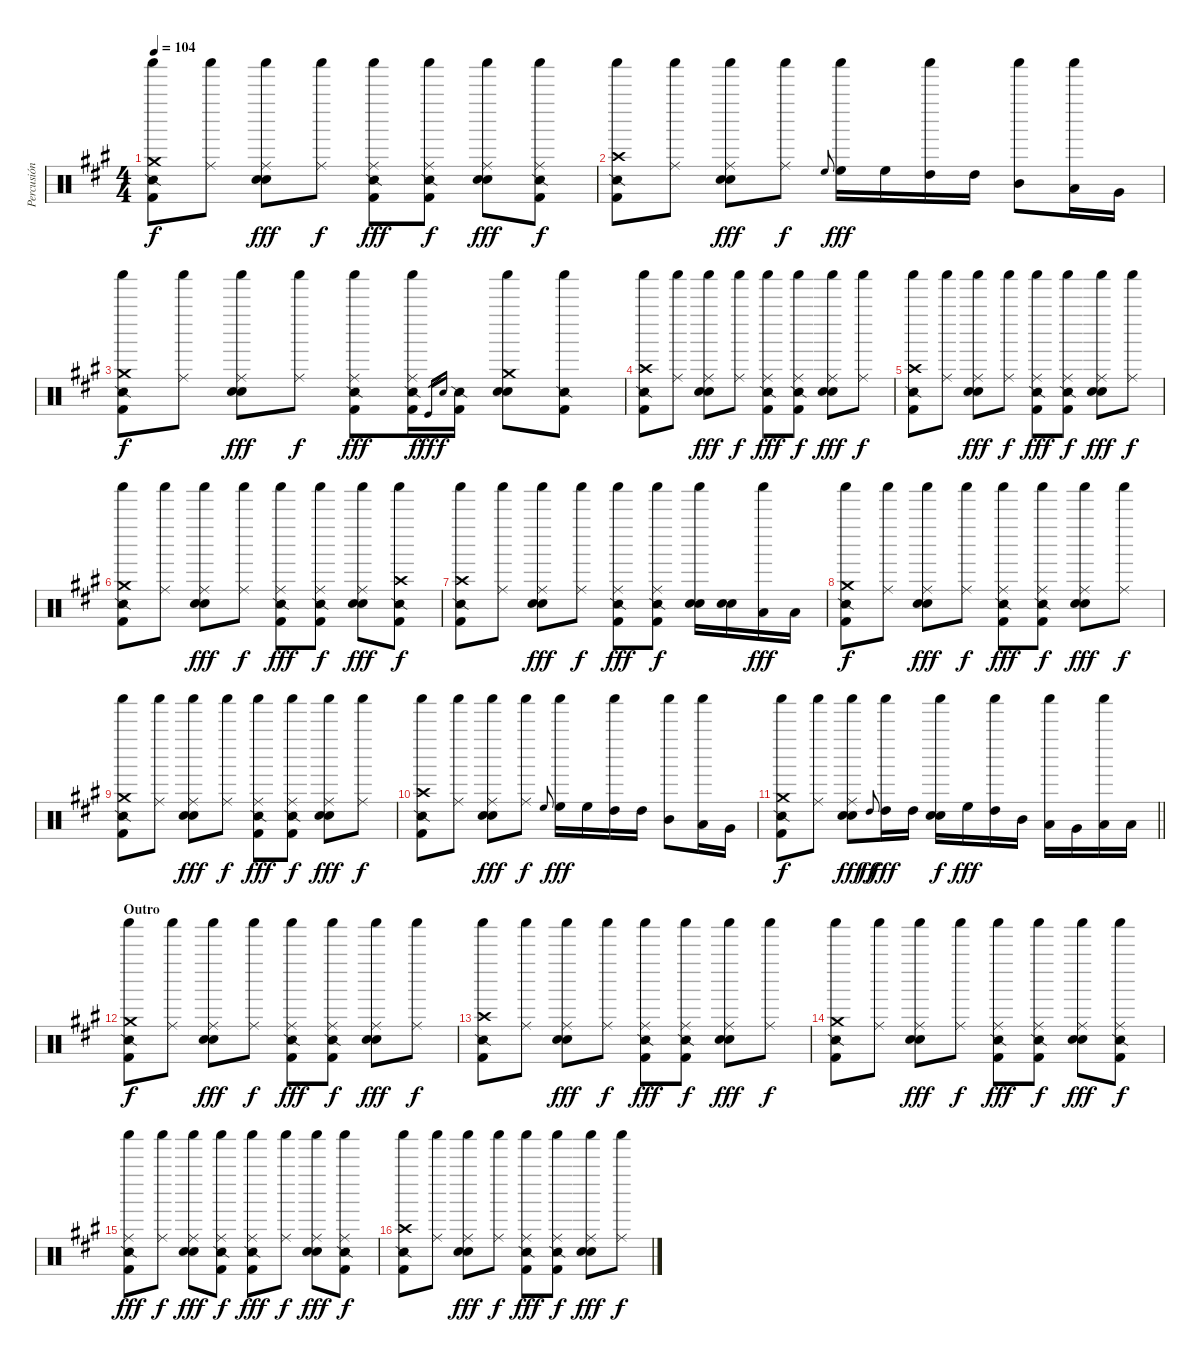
\track ("Percusión" "Percusión") {instrument percussion}
\staff {score}
\articulation defaults
\ts (4 4)
\tempo 104
\clef neutral
\ks a
("Crash medium (hit)" "Kick (hit) 2" "Snare (side stick) 2" "Shaker (hit)").8{dy f} ("Ride (middle)" "Shaker (hit)").8 ("Ride (middle)" "Snare (hit) 2" "Electric Snare (hit)" "Shaker (hit)").8{dy fff} ("Ride (middle)" "Shaker (hit)").8{dy f} ("Ride (middle)" "Kick (hit) 2" "Snare (side stick) 2" "Shaker (hit)").8{dy fff} ("Ride (middle)" "Kick (hit) 2" "Snare (side stick) 2" "Shaker (hit)").8{dy f} ("Ride (middle)" "Snare (hit) 2" "Electric Snare (hit)" "Shaker (hit)").8{dy fff} ("Ride (middle)" "Kick (hit) 2" "Snare (side stick) 2" "Shaker (hit)").8{dy f} |
("Crash high (hit)" "Kick (hit) 2" "Snare (side stick) 2" "Shaker (hit)").8 ("Ride (middle)" "Shaker (hit)").8 ("Ride (middle)" "Snare (hit) 2" "Electric Snare (hit)" "Shaker (hit)").8{dy fff} ("Ride (middle)" "Shaker (hit)").8{dy f} "High Floor Tom (hit)".8{gr onbeat} ("High Floor Tom (hit)" "Shaker (hit)").16{dy fff} "High Floor Tom (hit)".16 ("High Tom (hit)" "Shaker (hit)").16 "High Tom (hit)".16 ("Mid Tom (hit)" "Shaker (hit)").8 ("Low Tom (hit)" "Shaker (hit)").16 "Very Low Tom (hit)".16 |
("Crash medium (hit)" "Kick (hit) 2" "Snare (side stick) 2" "Shaker (hit)").8{dy f} ("Ride (middle)" "Shaker (hit)").8 ("Ride (middle)" "Snare (hit) 2" "Electric Snare (hit)" "Shaker (hit)").8{dy fff} ("Ride (middle)" "Shaker (hit)").8{dy f} ("Ride (middle)" "Kick (hit) 2" "Snare (side stick) 2" "Shaker (hit)").8{dy fff} ("Ride (middle)" "Kick (hit) 2" "Snare (side stick) 2" "Shaker (hit)").16{dy f} "Kick (hit)".16{gr dy ff} "Snare (hit)".16{gr dy f} ("Kick (hit) 2" "Snare (side stick) 2").16 ("Crash medium (hit)" "Snare (hit) 2" "Electric Snare (hit)" "Shaker (hit)").8 ("Kick (hit) 2" "Snare (side stick) 2" "Shaker (hit)").8 |
("Crash high (hit)" "Kick (hit) 2" "Snare (side stick) 2" "Shaker (hit)").8 ("Ride (middle)" "Shaker (hit)").8 ("Ride (middle)" "Snare (hit) 2" "Electric Snare (hit)" "Shaker (hit)").8{dy fff} ("Ride (middle)" "Shaker (hit)").8{dy f} ("Ride (middle)" "Kick (hit) 2" "Snare (side stick) 2" "Shaker (hit)").8{dy fff} ("Ride (middle)" "Kick (hit) 2" "Snare (side stick) 2" "Shaker (hit)").8{dy f} ("Ride (middle)" "Snare (hit) 2" "Electric Snare (hit)" "Shaker (hit)").8{dy fff} ("Ride (middle)" "Shaker (hit)").8{dy f} |
("Crash high (hit)" "Kick (hit) 2" "Snare (side stick) 2" "Shaker (hit)").8 ("Ride (middle)" "Shaker (hit)").8 ("Ride (middle)" "Snare (hit) 2" "Electric Snare (hit)" "Shaker (hit)").8{dy fff} ("Ride (middle)" "Shaker (hit)").8{dy f} ("Ride (middle)" "Kick (hit) 2" "Snare (side stick) 2" "Shaker (hit)").8{dy fff} ("Ride (middle)" "Kick (hit) 2" "Snare (side stick) 2" "Shaker (hit)").8{dy f} ("Ride (middle)" "Snare (hit) 2" "Electric Snare (hit)" "Shaker (hit)").8{dy fff} ("Ride (middle)" "Shaker (hit)").8{dy f} |
("Crash medium (hit)" "Kick (hit) 2" "Snare (side stick) 2" "Shaker (hit)").8 ("Ride (middle)" "Shaker (hit)").8 ("Ride (middle)" "Snare (hit) 2" "Electric Snare (hit)" "Shaker (hit)").8{dy fff} ("Ride (middle)" "Shaker (hit)").8{dy f} ("Ride (middle)" "Kick (hit) 2" "Snare (side stick) 2" "Shaker (hit)").8{dy fff} ("Ride (middle)" "Kick (hit) 2" "Snare (side stick) 2" "Shaker (hit)").8{dy f} ("Ride (middle)" "Snare (hit) 2" "Electric Snare (hit)" "Shaker (hit)").8{dy fff} ("Crash high (hit)" "Kick (hit) 2" "Snare (side stick) 2" "Shaker (hit)").8{dy f} |
("Crash high (hit)" "Kick (hit) 2" "Snare (side stick) 2" "Shaker (hit)").8 ("Ride (middle)" "Shaker (hit)").8 ("Ride (middle)" "Snare (hit) 2" "Electric Snare (hit)" "Shaker (hit)").8{dy fff} ("Ride (middle)" "Shaker (hit)").8{dy f} ("Ride (middle)" "Kick (hit) 2" "Snare (side stick) 2" "Shaker (hit)").8{dy fff} ("Ride (middle)" "Kick (hit) 2" "Snare (side stick) 2" "Shaker (hit)").8{dy f} ("Snare (hit) 2" "Electric Snare (hit)" "Shaker (hit)").16 ("Snare (hit) 2" "Electric Snare (hit)").16 ("Low Tom (hit)" "Shaker (hit)").16{dy fff} "Low Tom (hit)".16 |
("Crash medium (hit)" "Kick (hit) 2" "Snare (side stick) 2" "Shaker (hit)").8{dy f} ("Ride (middle)" "Shaker (hit)").8 ("Ride (middle)" "Snare (hit) 2" "Electric Snare (hit)" "Shaker (hit)").8{dy fff} ("Ride (middle)" "Shaker (hit)").8{dy f} ("Ride (middle)" "Kick (hit) 2" "Snare (side stick) 2" "Shaker (hit)").8{dy fff} ("Ride (middle)" "Kick (hit) 2" "Snare (side stick) 2" "Shaker (hit)").8{dy f} ("Ride (middle)" "Snare (hit) 2" "Electric Snare (hit)" "Shaker (hit)").8{dy fff} ("Ride (middle)" "Shaker (hit)").8{dy f} |
("Crash medium (hit)" "Kick (hit) 2" "Snare (side stick) 2" "Shaker (hit)").8 ("Ride (middle)" "Shaker (hit)").8 ("Ride (middle)" "Snare (hit) 2" "Electric Snare (hit)" "Shaker (hit)").8{dy fff} ("Ride (middle)" "Shaker (hit)").8{dy f} ("Ride (middle)" "Kick (hit) 2" "Snare (side stick) 2" "Shaker (hit)").8{dy fff} ("Ride (middle)" "Kick (hit) 2" "Snare (side stick) 2" "Shaker (hit)").8{dy f} ("Ride (middle)" "Snare (hit) 2" "Electric Snare (hit)" "Shaker (hit)").8{dy fff} ("Ride (middle)" "Shaker (hit)").8{dy f} |
("Crash high (hit)" "Kick (hit) 2" "Snare (side stick) 2" "Shaker (hit)").8 ("Ride (middle)" "Shaker (hit)").8 ("Ride (middle)" "Snare (hit) 2" "Electric Snare (hit)" "Shaker (hit)").8{dy fff} ("Ride (middle)" "Shaker (hit)").8{dy f} "High Floor Tom (hit)".8{gr onbeat} ("High Floor Tom (hit)" "Shaker (hit)").16{dy fff} "High Floor Tom (hit)".16 ("High Tom (hit)" "Shaker (hit)").16 "High Tom (hit)".16 ("Mid Tom (hit)" "Shaker (hit)").8 ("Low Tom (hit)" "Shaker (hit)").16 "Very Low Tom (hit)".16 |
\barLineRight lightlight
("Crash medium (hit)" "Kick (hit) 2" "Snare (side stick) 2" "Shaker (hit)").8{dy f} ("Ride (middle)" "Shaker (hit)").8 ("Ride (middle)" "Snare (hit) 2" "Electric Snare (hit)" "Shaker (hit)").8{dy fff} "High Tom (hit)".8{gr onbeat dy ff} ("High Tom (hit)" "Shaker (hit)").16{dy fff} "High Tom (hit)".16 ("Snare (hit) 2" "Electric Snare (hit)" "Shaker (hit)").16{dy f} "High Floor Tom (hit)".16{dy fff} ("High Tom (hit)" "Shaker (hit)").16 "Mid Tom (hit)".16 ("Low Tom (hit)" "Shaker (hit)").16 "Very Low Tom (hit)".16 ("Low Floor Tom (hit)" "Shaker (hit)").16 "Low Floor Tom (hit)".16 |
\section ("" "Outro")
("Crash medium (hit)" "Kick (hit) 2" "Snare (side stick) 2" "Shaker (hit)").8{dy f} ("Ride (middle)" "Shaker (hit)").8 ("Ride (middle)" "Snare (hit) 2" "Electric Snare (hit)" "Shaker (hit)").8{dy fff} ("Ride (middle)" "Shaker (hit)").8{dy f} ("Ride (middle)" "Kick (hit) 2" "Snare (side stick) 2" "Shaker (hit)").8{dy fff} ("Ride (middle)" "Kick (hit) 2" "Snare (side stick) 2" "Shaker (hit)").8{dy f} ("Ride (middle)" "Snare (hit) 2" "Electric Snare (hit)" "Shaker (hit)").8{dy fff} ("Ride (middle)" "Shaker (hit)").8{dy f} |
("Crash high (hit)" "Kick (hit) 2" "Snare (side stick) 2" "Shaker (hit)").8 ("Ride (middle)" "Shaker (hit)").8 ("Ride (middle)" "Snare (hit) 2" "Electric Snare (hit)" "Shaker (hit)").8{dy fff} ("Ride (middle)" "Shaker (hit)").8{dy f} ("Ride (middle)" "Kick (hit) 2" "Snare (side stick) 2" "Shaker (hit)").8{dy fff} ("Ride (middle)" "Kick (hit) 2" "Snare (side stick) 2" "Shaker (hit)").8{dy f} ("Ride (middle)" "Snare (hit) 2" "Electric Snare (hit)" "Shaker (hit)").8{dy fff} ("Ride (middle)" "Shaker (hit)").8{dy f} |
("Crash medium (hit)" "Kick (hit) 2" "Snare (side stick) 2" "Shaker (hit)").8 ("Ride (middle)" "Shaker (hit)").8 ("Ride (middle)" "Snare (hit) 2" "Electric Snare (hit)" "Shaker (hit)").8{dy fff} ("Ride (middle)" "Shaker (hit)").8{dy f} ("Ride (middle)" "Kick (hit) 2" "Snare (side stick) 2" "Shaker (hit)").8{dy fff} ("Ride (middle)" "Kick (hit) 2" "Snare (side stick) 2" "Shaker (hit)").8{dy f} ("Ride (middle)" "Snare (hit) 2" "Electric Snare (hit)" "Shaker (hit)").8{dy fff} ("Ride (middle)" "Kick (hit) 2" "Snare (side stick) 2" "Shaker (hit)").8{dy f} |
("Ride (middle)" "Kick (hit) 2" "Snare (side stick) 2" "Shaker (hit)").8{dy fff} ("Ride (middle)" "Shaker (hit)").8{dy f} ("Ride (middle)" "Snare (hit) 2" "Electric Snare (hit)" "Shaker (hit)").8{dy fff} ("Ride (middle)" "Kick (hit) 2" "Snare (side stick) 2" "Shaker (hit)").8{dy f} ("Ride (middle)" "Kick (hit) 2" "Snare (side stick) 2" "Shaker (hit)").8{dy fff} ("Ride (middle)" "Shaker (hit)").8{dy f} ("Ride (middle)" "Snare (hit) 2" "Electric Snare (hit)" "Shaker (hit)").8{dy fff} ("Ride (middle)" "Kick (hit) 2" "Snare (side stick) 2" "Shaker (hit)").8{dy f} |
("Crash high (hit)" "Kick (hit) 2" "Snare (side stick) 2" "Shaker (hit)").8 ("Ride (middle)" "Shaker (hit)").8 ("Ride (middle)" "Snare (hit) 2" "Electric Snare (hit)" "Shaker (hit)").8{dy fff} ("Ride (middle)" "Shaker (hit)").8{dy f} ("Ride (middle)" "Kick (hit) 2" "Snare (side stick) 2" "Shaker (hit)").8{dy fff} ("Ride (middle)" "Kick (hit) 2" "Snare (side stick) 2" "Shaker (hit)").8{dy f} ("Ride (middle)" "Snare (hit) 2" "Electric Snare (hit)" "Shaker (hit)").8{dy fff} ("Ride (middle)" "Shaker (hit)").8{dy f}
